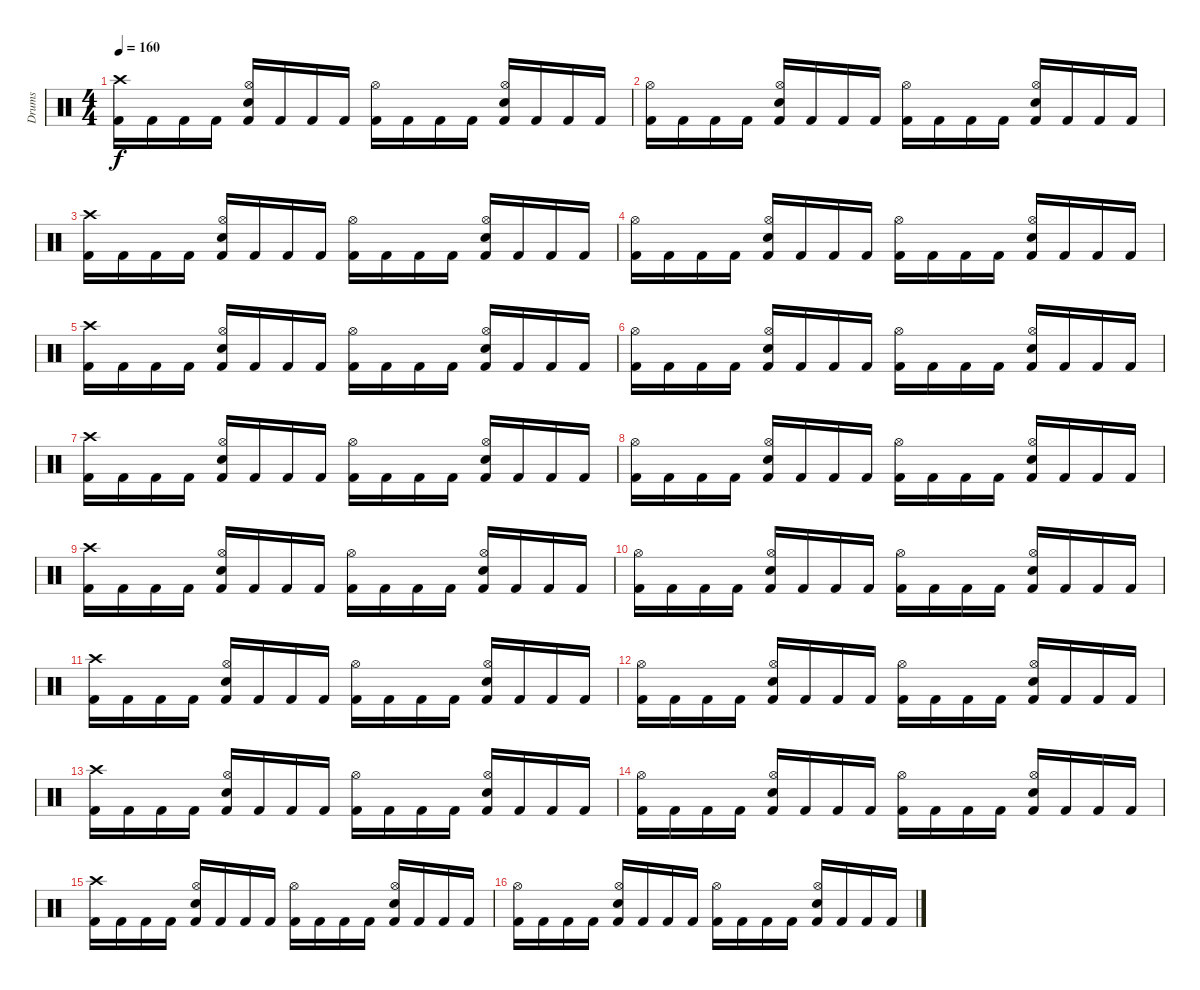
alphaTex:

\track ("Drums" "Drums") {instrument percussion}
\staff {score}
\articulation defaults
\ts (4 4)
\tempo 160
\clef neutral
\ks c
("Crash high (hit)" "Kick (hit) 2").16{dy f} "Kick (hit) 2".16 "Kick (hit) 2".16 "Kick (hit) 2".16 ("Hi-Hat (open)" "Electric Snare (hit)" "Kick (hit) 2").16 "Kick (hit) 2".16 "Kick (hit) 2".16 "Kick (hit) 2".16 ("Hi-Hat (open)" "Kick (hit) 2").16 "Kick (hit) 2".16 "Kick (hit) 2".16 "Kick (hit) 2".16 ("Hi-Hat (open)" "Electric Snare (hit)" "Kick (hit) 2").16 "Kick (hit) 2".16 "Kick (hit) 2".16 "Kick (hit) 2".16 |
("Hi-Hat (open)" "Kick (hit) 2").16 "Kick (hit) 2".16 "Kick (hit) 2".16 "Kick (hit) 2".16 ("Hi-Hat (open)" "Electric Snare (hit)" "Kick (hit) 2").16 "Kick (hit) 2".16 "Kick (hit) 2".16 "Kick (hit) 2".16 ("Hi-Hat (open)" "Kick (hit) 2").16 "Kick (hit) 2".16 "Kick (hit) 2".16 "Kick (hit) 2".16 ("Hi-Hat (open)" "Electric Snare (hit)" "Kick (hit) 2").16 "Kick (hit) 2".16 "Kick (hit) 2".16 "Kick (hit) 2".16 |
("Crash high (hit)" "Kick (hit) 2").16 "Kick (hit) 2".16 "Kick (hit) 2".16 "Kick (hit) 2".16 ("Hi-Hat (open)" "Electric Snare (hit)" "Kick (hit) 2").16 "Kick (hit) 2".16 "Kick (hit) 2".16 "Kick (hit) 2".16 ("Hi-Hat (open)" "Kick (hit) 2").16 "Kick (hit) 2".16 "Kick (hit) 2".16 "Kick (hit) 2".16 ("Hi-Hat (open)" "Electric Snare (hit)" "Kick (hit) 2").16 "Kick (hit) 2".16 "Kick (hit) 2".16 "Kick (hit) 2".16 |
("Hi-Hat (open)" "Kick (hit) 2").16 "Kick (hit) 2".16 "Kick (hit) 2".16 "Kick (hit) 2".16 ("Hi-Hat (open)" "Electric Snare (hit)" "Kick (hit) 2").16 "Kick (hit) 2".16 "Kick (hit) 2".16 "Kick (hit) 2".16 ("Hi-Hat (open)" "Kick (hit) 2").16 "Kick (hit) 2".16 "Kick (hit) 2".16 "Kick (hit) 2".16 ("Hi-Hat (open)" "Electric Snare (hit)" "Kick (hit) 2").16 "Kick (hit) 2".16 "Kick (hit) 2".16 "Kick (hit) 2".16 |
("Crash high (hit)" "Kick (hit) 2").16 "Kick (hit) 2".16 "Kick (hit) 2".16 "Kick (hit) 2".16 ("Hi-Hat (open)" "Electric Snare (hit)" "Kick (hit) 2").16 "Kick (hit) 2".16 "Kick (hit) 2".16 "Kick (hit) 2".16 ("Hi-Hat (open)" "Kick (hit) 2").16 "Kick (hit) 2".16 "Kick (hit) 2".16 "Kick (hit) 2".16 ("Hi-Hat (open)" "Electric Snare (hit)" "Kick (hit) 2").16 "Kick (hit) 2".16 "Kick (hit) 2".16 "Kick (hit) 2".16 |
("Hi-Hat (open)" "Kick (hit) 2").16 "Kick (hit) 2".16 "Kick (hit) 2".16 "Kick (hit) 2".16 ("Hi-Hat (open)" "Electric Snare (hit)" "Kick (hit) 2").16 "Kick (hit) 2".16 "Kick (hit) 2".16 "Kick (hit) 2".16 ("Hi-Hat (open)" "Kick (hit) 2").16 "Kick (hit) 2".16 "Kick (hit) 2".16 "Kick (hit) 2".16 ("Hi-Hat (open)" "Electric Snare (hit)" "Kick (hit) 2").16 "Kick (hit) 2".16 "Kick (hit) 2".16 "Kick (hit) 2".16 |
("Crash high (hit)" "Kick (hit) 2").16 "Kick (hit) 2".16 "Kick (hit) 2".16 "Kick (hit) 2".16 ("Hi-Hat (open)" "Electric Snare (hit)" "Kick (hit) 2").16 "Kick (hit) 2".16 "Kick (hit) 2".16 "Kick (hit) 2".16 ("Hi-Hat (open)" "Kick (hit) 2").16 "Kick (hit) 2".16 "Kick (hit) 2".16 "Kick (hit) 2".16 ("Hi-Hat (open)" "Electric Snare (hit)" "Kick (hit) 2").16 "Kick (hit) 2".16 "Kick (hit) 2".16 "Kick (hit) 2".16 |
("Hi-Hat (open)" "Kick (hit) 2").16 "Kick (hit) 2".16 "Kick (hit) 2".16 "Kick (hit) 2".16 ("Hi-Hat (open)" "Electric Snare (hit)" "Kick (hit) 2").16 "Kick (hit) 2".16 "Kick (hit) 2".16 "Kick (hit) 2".16 ("Hi-Hat (open)" "Kick (hit) 2").16 "Kick (hit) 2".16 "Kick (hit) 2".16 "Kick (hit) 2".16 ("Hi-Hat (open)" "Electric Snare (hit)" "Kick (hit) 2").16 "Kick (hit) 2".16 "Kick (hit) 2".16 "Kick (hit) 2".16 |
("Crash high (hit)" "Kick (hit) 2").16 "Kick (hit) 2".16 "Kick (hit) 2".16 "Kick (hit) 2".16 ("Hi-Hat (open)" "Electric Snare (hit)" "Kick (hit) 2").16 "Kick (hit) 2".16 "Kick (hit) 2".16 "Kick (hit) 2".16 ("Hi-Hat (open)" "Kick (hit) 2").16 "Kick (hit) 2".16 "Kick (hit) 2".16 "Kick (hit) 2".16 ("Hi-Hat (open)" "Electric Snare (hit)" "Kick (hit) 2").16 "Kick (hit) 2".16 "Kick (hit) 2".16 "Kick (hit) 2".16 |
("Hi-Hat (open)" "Kick (hit) 2").16 "Kick (hit) 2".16 "Kick (hit) 2".16 "Kick (hit) 2".16 ("Hi-Hat (open)" "Electric Snare (hit)" "Kick (hit) 2").16 "Kick (hit) 2".16 "Kick (hit) 2".16 "Kick (hit) 2".16 ("Hi-Hat (open)" "Kick (hit) 2").16 "Kick (hit) 2".16 "Kick (hit) 2".16 "Kick (hit) 2".16 ("Hi-Hat (open)" "Electric Snare (hit)" "Kick (hit) 2").16 "Kick (hit) 2".16 "Kick (hit) 2".16 "Kick (hit) 2".16 |
("Crash high (hit)" "Kick (hit) 2").16 "Kick (hit) 2".16 "Kick (hit) 2".16 "Kick (hit) 2".16 ("Hi-Hat (open)" "Electric Snare (hit)" "Kick (hit) 2").16 "Kick (hit) 2".16 "Kick (hit) 2".16 "Kick (hit) 2".16 ("Hi-Hat (open)" "Kick (hit) 2").16 "Kick (hit) 2".16 "Kick (hit) 2".16 "Kick (hit) 2".16 ("Hi-Hat (open)" "Electric Snare (hit)" "Kick (hit) 2").16 "Kick (hit) 2".16 "Kick (hit) 2".16 "Kick (hit) 2".16 |
("Hi-Hat (open)" "Kick (hit) 2").16 "Kick (hit) 2".16 "Kick (hit) 2".16 "Kick (hit) 2".16 ("Hi-Hat (open)" "Electric Snare (hit)" "Kick (hit) 2").16 "Kick (hit) 2".16 "Kick (hit) 2".16 "Kick (hit) 2".16 ("Hi-Hat (open)" "Kick (hit) 2").16 "Kick (hit) 2".16 "Kick (hit) 2".16 "Kick (hit) 2".16 ("Hi-Hat (open)" "Electric Snare (hit)" "Kick (hit) 2").16 "Kick (hit) 2".16 "Kick (hit) 2".16 "Kick (hit) 2".16 |
("Crash high (hit)" "Kick (hit) 2").16 "Kick (hit) 2".16 "Kick (hit) 2".16 "Kick (hit) 2".16 ("Hi-Hat (open)" "Electric Snare (hit)" "Kick (hit) 2").16 "Kick (hit) 2".16 "Kick (hit) 2".16 "Kick (hit) 2".16 ("Hi-Hat (open)" "Kick (hit) 2").16 "Kick (hit) 2".16 "Kick (hit) 2".16 "Kick (hit) 2".16 ("Hi-Hat (open)" "Electric Snare (hit)" "Kick (hit) 2").16 "Kick (hit) 2".16 "Kick (hit) 2".16 "Kick (hit) 2".16 |
("Hi-Hat (open)" "Kick (hit) 2").16 "Kick (hit) 2".16 "Kick (hit) 2".16 "Kick (hit) 2".16 ("Hi-Hat (open)" "Electric Snare (hit)" "Kick (hit) 2").16 "Kick (hit) 2".16 "Kick (hit) 2".16 "Kick (hit) 2".16 ("Hi-Hat (open)" "Kick (hit) 2").16 "Kick (hit) 2".16 "Kick (hit) 2".16 "Kick (hit) 2".16 ("Hi-Hat (open)" "Electric Snare (hit)" "Kick (hit) 2").16 "Kick (hit) 2".16 "Kick (hit) 2".16 "Kick (hit) 2".16 |
("Crash high (hit)" "Kick (hit) 2").16 "Kick (hit) 2".16 "Kick (hit) 2".16 "Kick (hit) 2".16 ("Hi-Hat (open)" "Electric Snare (hit)" "Kick (hit) 2").16 "Kick (hit) 2".16 "Kick (hit) 2".16 "Kick (hit) 2".16 ("Hi-Hat (open)" "Kick (hit) 2").16 "Kick (hit) 2".16 "Kick (hit) 2".16 "Kick (hit) 2".16 ("Hi-Hat (open)" "Electric Snare (hit)" "Kick (hit) 2").16 "Kick (hit) 2".16 "Kick (hit) 2".16 "Kick (hit) 2".16 |
("Hi-Hat (open)" "Kick (hit) 2").16 "Kick (hit) 2".16 "Kick (hit) 2".16 "Kick (hit) 2".16 ("Hi-Hat (open)" "Electric Snare (hit)" "Kick (hit) 2").16 "Kick (hit) 2".16 "Kick (hit) 2".16 "Kick (hit) 2".16 ("Hi-Hat (open)" "Kick (hit) 2").16 "Kick (hit) 2".16 "Kick (hit) 2".16 "Kick (hit) 2".16 ("Hi-Hat (open)" "Electric Snare (hit)" "Kick (hit) 2").16 "Kick (hit) 2".16 "Kick (hit) 2".16 "Kick (hit) 2".16
